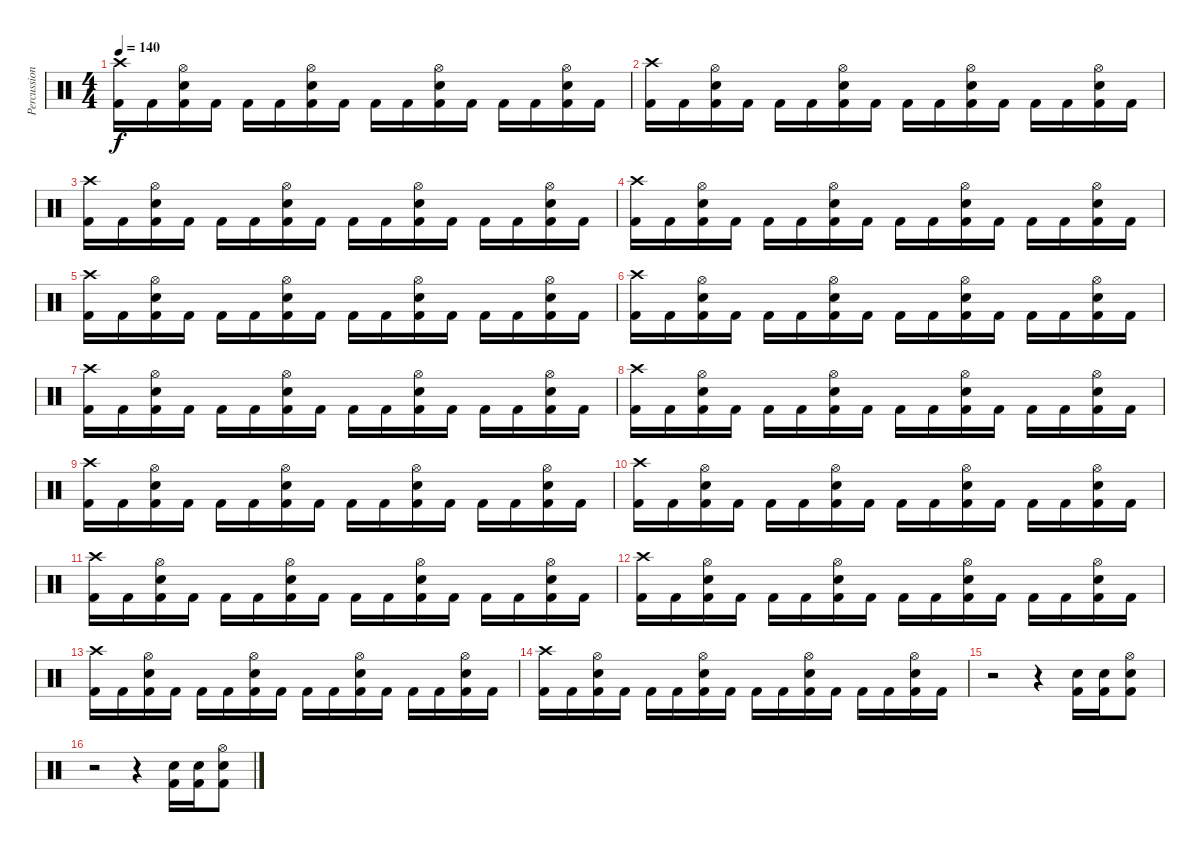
\track ("Percussion" "Percussion") {instrument percussion}
\staff {score}
\articulation defaults
\ts (4 4)
\tempo 140
\clef neutral
\ks c
("Crash high (hit)" "Kick (hit) 2").16{dy f} "Kick (hit) 2".16 ("Electric Snare (hit)" "Kick (hit) 2" "Hi-Hat (open)").16 "Kick (hit) 2".16 "Kick (hit) 2".16 "Kick (hit) 2".16 ("Electric Snare (hit)" "Kick (hit) 2" "Hi-Hat (open)").16 "Kick (hit) 2".16 "Kick (hit) 2".16 "Kick (hit) 2".16 ("Electric Snare (hit)" "Kick (hit) 2" "Hi-Hat (open)").16 "Kick (hit) 2".16 "Kick (hit) 2".16 "Kick (hit) 2".16 ("Hi-Hat (open)" "Electric Snare (hit)" "Kick (hit) 2").16 "Kick (hit) 2".16 |
("Crash high (hit)" "Kick (hit) 2").16 "Kick (hit) 2".16 ("Electric Snare (hit)" "Kick (hit) 2" "Hi-Hat (open)").16 "Kick (hit) 2".16 "Kick (hit) 2".16 "Kick (hit) 2".16 ("Electric Snare (hit)" "Kick (hit) 2" "Hi-Hat (open)").16 "Kick (hit) 2".16 "Kick (hit) 2".16 "Kick (hit) 2".16 ("Electric Snare (hit)" "Kick (hit) 2" "Hi-Hat (open)").16 "Kick (hit) 2".16 "Kick (hit) 2".16 "Kick (hit) 2".16 ("Hi-Hat (open)" "Electric Snare (hit)" "Kick (hit) 2").16 "Kick (hit) 2".16 |
("Crash high (hit)" "Kick (hit) 2").16 "Kick (hit) 2".16 ("Electric Snare (hit)" "Kick (hit) 2" "Hi-Hat (open)").16 "Kick (hit) 2".16 "Kick (hit) 2".16 "Kick (hit) 2".16 ("Electric Snare (hit)" "Kick (hit) 2" "Hi-Hat (open)").16 "Kick (hit) 2".16 "Kick (hit) 2".16 "Kick (hit) 2".16 ("Electric Snare (hit)" "Kick (hit) 2" "Hi-Hat (open)").16 "Kick (hit) 2".16 "Kick (hit) 2".16 "Kick (hit) 2".16 ("Hi-Hat (open)" "Electric Snare (hit)" "Kick (hit) 2").16 "Kick (hit) 2".16 |
("Crash high (hit)" "Kick (hit) 2").16 "Kick (hit) 2".16 ("Electric Snare (hit)" "Kick (hit) 2" "Hi-Hat (open)").16 "Kick (hit) 2".16 "Kick (hit) 2".16 "Kick (hit) 2".16 ("Electric Snare (hit)" "Kick (hit) 2" "Hi-Hat (open)").16 "Kick (hit) 2".16 "Kick (hit) 2".16 "Kick (hit) 2".16 ("Electric Snare (hit)" "Kick (hit) 2" "Hi-Hat (open)").16 "Kick (hit) 2".16 "Kick (hit) 2".16 "Kick (hit) 2".16 ("Hi-Hat (open)" "Electric Snare (hit)" "Kick (hit) 2").16 "Kick (hit) 2".16 |
("Crash high (hit)" "Kick (hit) 2").16 "Kick (hit) 2".16 ("Electric Snare (hit)" "Kick (hit) 2" "Hi-Hat (open)").16 "Kick (hit) 2".16 "Kick (hit) 2".16 "Kick (hit) 2".16 ("Electric Snare (hit)" "Kick (hit) 2" "Hi-Hat (open)").16 "Kick (hit) 2".16 "Kick (hit) 2".16 "Kick (hit) 2".16 ("Electric Snare (hit)" "Kick (hit) 2" "Hi-Hat (open)").16 "Kick (hit) 2".16 "Kick (hit) 2".16 "Kick (hit) 2".16 ("Hi-Hat (open)" "Electric Snare (hit)" "Kick (hit) 2").16 "Kick (hit) 2".16 |
("Crash high (hit)" "Kick (hit) 2").16 "Kick (hit) 2".16 ("Electric Snare (hit)" "Kick (hit) 2" "Hi-Hat (open)").16 "Kick (hit) 2".16 "Kick (hit) 2".16 "Kick (hit) 2".16 ("Electric Snare (hit)" "Kick (hit) 2" "Hi-Hat (open)").16 "Kick (hit) 2".16 "Kick (hit) 2".16 "Kick (hit) 2".16 ("Electric Snare (hit)" "Kick (hit) 2" "Hi-Hat (open)").16 "Kick (hit) 2".16 "Kick (hit) 2".16 "Kick (hit) 2".16 ("Hi-Hat (open)" "Electric Snare (hit)" "Kick (hit) 2").16 "Kick (hit) 2".16 |
("Crash high (hit)" "Kick (hit) 2").16 "Kick (hit) 2".16 ("Electric Snare (hit)" "Kick (hit) 2" "Hi-Hat (open)").16 "Kick (hit) 2".16 "Kick (hit) 2".16 "Kick (hit) 2".16 ("Electric Snare (hit)" "Kick (hit) 2" "Hi-Hat (open)").16 "Kick (hit) 2".16 "Kick (hit) 2".16 "Kick (hit) 2".16 ("Electric Snare (hit)" "Kick (hit) 2" "Hi-Hat (open)").16 "Kick (hit) 2".16 "Kick (hit) 2".16 "Kick (hit) 2".16 ("Hi-Hat (open)" "Electric Snare (hit)" "Kick (hit) 2").16 "Kick (hit) 2".16 |
("Crash high (hit)" "Kick (hit) 2").16 "Kick (hit) 2".16 ("Electric Snare (hit)" "Kick (hit) 2" "Hi-Hat (open)").16 "Kick (hit) 2".16 "Kick (hit) 2".16 "Kick (hit) 2".16 ("Electric Snare (hit)" "Kick (hit) 2" "Hi-Hat (open)").16 "Kick (hit) 2".16 "Kick (hit) 2".16 "Kick (hit) 2".16 ("Electric Snare (hit)" "Kick (hit) 2" "Hi-Hat (open)").16 "Kick (hit) 2".16 "Kick (hit) 2".16 "Kick (hit) 2".16 ("Hi-Hat (open)" "Electric Snare (hit)" "Kick (hit) 2").16 "Kick (hit) 2".16 |
("Crash high (hit)" "Kick (hit) 2").16 "Kick (hit) 2".16 ("Electric Snare (hit)" "Kick (hit) 2" "Hi-Hat (open)").16 "Kick (hit) 2".16 "Kick (hit) 2".16 "Kick (hit) 2".16 ("Electric Snare (hit)" "Kick (hit) 2" "Hi-Hat (open)").16 "Kick (hit) 2".16 "Kick (hit) 2".16 "Kick (hit) 2".16 ("Electric Snare (hit)" "Kick (hit) 2" "Hi-Hat (open)").16 "Kick (hit) 2".16 "Kick (hit) 2".16 "Kick (hit) 2".16 ("Hi-Hat (open)" "Electric Snare (hit)" "Kick (hit) 2").16 "Kick (hit) 2".16 |
("Crash high (hit)" "Kick (hit) 2").16 "Kick (hit) 2".16 ("Electric Snare (hit)" "Kick (hit) 2" "Hi-Hat (open)").16 "Kick (hit) 2".16 "Kick (hit) 2".16 "Kick (hit) 2".16 ("Electric Snare (hit)" "Kick (hit) 2" "Hi-Hat (open)").16 "Kick (hit) 2".16 "Kick (hit) 2".16 "Kick (hit) 2".16 ("Electric Snare (hit)" "Kick (hit) 2" "Hi-Hat (open)").16 "Kick (hit) 2".16 "Kick (hit) 2".16 "Kick (hit) 2".16 ("Hi-Hat (open)" "Electric Snare (hit)" "Kick (hit) 2").16 "Kick (hit) 2".16 |
("Crash high (hit)" "Kick (hit) 2").16 "Kick (hit) 2".16 ("Electric Snare (hit)" "Kick (hit) 2" "Hi-Hat (open)").16 "Kick (hit) 2".16 "Kick (hit) 2".16 "Kick (hit) 2".16 ("Electric Snare (hit)" "Kick (hit) 2" "Hi-Hat (open)").16 "Kick (hit) 2".16 "Kick (hit) 2".16 "Kick (hit) 2".16 ("Electric Snare (hit)" "Kick (hit) 2" "Hi-Hat (open)").16 "Kick (hit) 2".16 "Kick (hit) 2".16 "Kick (hit) 2".16 ("Hi-Hat (open)" "Electric Snare (hit)" "Kick (hit) 2").16 "Kick (hit) 2".16 |
("Crash high (hit)" "Kick (hit) 2").16 "Kick (hit) 2".16 ("Electric Snare (hit)" "Kick (hit) 2" "Hi-Hat (open)").16 "Kick (hit) 2".16 "Kick (hit) 2".16 "Kick (hit) 2".16 ("Electric Snare (hit)" "Kick (hit) 2" "Hi-Hat (open)").16 "Kick (hit) 2".16 "Kick (hit) 2".16 "Kick (hit) 2".16 ("Electric Snare (hit)" "Kick (hit) 2" "Hi-Hat (open)").16 "Kick (hit) 2".16 "Kick (hit) 2".16 "Kick (hit) 2".16 ("Hi-Hat (open)" "Electric Snare (hit)" "Kick (hit) 2").16 "Kick (hit) 2".16 |
("Crash high (hit)" "Kick (hit) 2").16 "Kick (hit) 2".16 ("Electric Snare (hit)" "Kick (hit) 2" "Hi-Hat (open)").16 "Kick (hit) 2".16 "Kick (hit) 2".16 "Kick (hit) 2".16 ("Electric Snare (hit)" "Kick (hit) 2" "Hi-Hat (open)").16 "Kick (hit) 2".16 "Kick (hit) 2".16 "Kick (hit) 2".16 ("Electric Snare (hit)" "Kick (hit) 2" "Hi-Hat (open)").16 "Kick (hit) 2".16 "Kick (hit) 2".16 "Kick (hit) 2".16 ("Hi-Hat (open)" "Electric Snare (hit)" "Kick (hit) 2").16 "Kick (hit) 2".16 |
("Crash high (hit)" "Kick (hit) 2").16 "Kick (hit) 2".16 ("Electric Snare (hit)" "Kick (hit) 2" "Hi-Hat (open)").16 "Kick (hit) 2".16 "Kick (hit) 2".16 "Kick (hit) 2".16 ("Electric Snare (hit)" "Kick (hit) 2" "Hi-Hat (open)").16 "Kick (hit) 2".16 "Kick (hit) 2".16 "Kick (hit) 2".16 ("Electric Snare (hit)" "Kick (hit) 2" "Hi-Hat (open)").16 "Kick (hit) 2".16 "Kick (hit) 2".16 "Kick (hit) 2".16 ("Hi-Hat (open)" "Electric Snare (hit)" "Kick (hit) 2").16 "Kick (hit) 2".16 |
r.2 r.4 ("Electric Snare (hit)" "Kick (hit) 2").16 ("Electric Snare (hit)" "Kick (hit) 2").16 ("Hi-Hat (open)" "Electric Snare (hit)" "Kick (hit) 2").8 |
r.2 r.4 ("Electric Snare (hit)" "Kick (hit) 2").16 ("Electric Snare (hit)" "Kick (hit) 2").16 ("Hi-Hat (open)" "Electric Snare (hit)" "Kick (hit) 2").8
